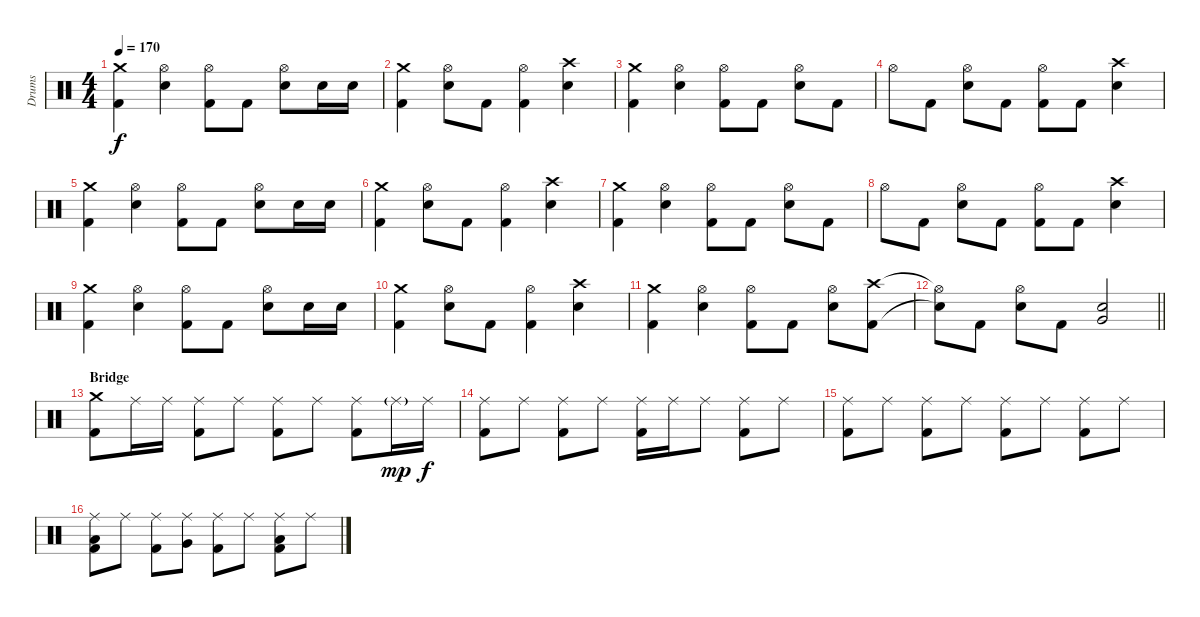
\track ("Drums" "Drums") {instrument percussion}
\staff {score}
\articulation defaults
\ts (4 4)
\tempo 170
\clef neutral
\ks c
("Crash medium (hit)" "Kick (hit) 2").4{dy f} ("Hi-Hat (open)" "Electric Snare (hit)").4 ("Hi-Hat (open)" "Kick (hit) 2").8 "Kick (hit) 2".8 ("Hi-Hat (open)" "Electric Snare (hit)").8 "Electric Snare (hit)".16 "Electric Snare (hit)".16 |
("Crash medium (hit)" "Kick (hit) 2").4 ("Hi-Hat (open)" "Electric Snare (hit)").8 "Kick (hit) 2".8 ("Hi-Hat (open)" "Kick (hit) 2").4 ("Crash high (hit)" "Electric Snare (hit)").4 |
("Crash medium (hit)" "Kick (hit) 2").4 ("Hi-Hat (open)" "Electric Snare (hit)").4 ("Hi-Hat (open)" "Kick (hit) 2").8 "Kick (hit) 2".8 ("Hi-Hat (open)" "Electric Snare (hit)").8 "Kick (hit) 2".8 |
"Hi-Hat (open)".8 "Kick (hit) 2".8 ("Hi-Hat (open)" "Electric Snare (hit)").8 "Kick (hit) 2".8 ("Hi-Hat (open)" "Kick (hit) 2").8 "Kick (hit) 2".8 ("Crash high (hit)" "Electric Snare (hit)").4 |
("Crash medium (hit)" "Kick (hit) 2").4 ("Hi-Hat (open)" "Electric Snare (hit)").4 ("Hi-Hat (open)" "Kick (hit) 2").8 "Kick (hit) 2".8 ("Hi-Hat (open)" "Electric Snare (hit)").8 "Electric Snare (hit)".16 "Electric Snare (hit)".16 |
("Crash medium (hit)" "Kick (hit) 2").4 ("Hi-Hat (open)" "Electric Snare (hit)").8 "Kick (hit) 2".8 ("Hi-Hat (open)" "Kick (hit) 2").4 ("Crash high (hit)" "Electric Snare (hit)").4 |
("Crash medium (hit)" "Kick (hit) 2").4 ("Hi-Hat (open)" "Electric Snare (hit)").4 ("Hi-Hat (open)" "Kick (hit) 2").8 "Kick (hit) 2".8 ("Hi-Hat (open)" "Electric Snare (hit)").8 "Kick (hit) 2".8 |
"Hi-Hat (open)".8 "Kick (hit) 2".8 ("Hi-Hat (open)" "Electric Snare (hit)").8 "Kick (hit) 2".8 ("Hi-Hat (open)" "Kick (hit) 2").8 "Kick (hit) 2".8 ("Crash high (hit)" "Electric Snare (hit)").4 |
("Crash medium (hit)" "Kick (hit) 2").4 ("Hi-Hat (open)" "Electric Snare (hit)").4 ("Hi-Hat (open)" "Kick (hit) 2").8 "Kick (hit) 2".8 ("Hi-Hat (open)" "Electric Snare (hit)").8 "Electric Snare (hit)".16 "Electric Snare (hit)".16 |
("Crash medium (hit)" "Kick (hit) 2").4 ("Hi-Hat (open)" "Electric Snare (hit)").8 "Kick (hit) 2".8 ("Hi-Hat (open)" "Kick (hit) 2").4 ("Crash high (hit)" "Electric Snare (hit)").4 |
("Crash medium (hit)" "Kick (hit) 2").4 ("Hi-Hat (open)" "Electric Snare (hit)").4 ("Hi-Hat (open)" "Kick (hit) 2").8 "Kick (hit) 2".8 ("Hi-Hat (open)" "Electric Snare (hit)").8 ("Crash high (hit)" "Kick (hit) 2").8 |
\barLineRight lightlight
("Hi-Hat (open)"{t} "Snare (hit)"{t}).8 "Kick (hit) 2".8 ("Hi-Hat (open)" "Electric Snare (hit)").8 "Kick (hit) 2".8 ("Very Low Tom (hit)" "Electric Snare (hit)").2 |
\section ("" "Bridge")
("Crash medium (hit)" "Kick (hit) 2").8 "Ride (middle)".16 "Ride (middle)".16 ("Ride (middle)" "Kick (hit) 2").8 "Ride (middle)".8 ("Ride (middle)" "Kick (hit) 2").8 "Ride (middle)".8 ("Ride (middle)" "Kick (hit) 2").8 "Ride (middle)"{g}.16{dy mp} "Ride (middle)".16{dy f} |
("Ride (middle)" "Kick (hit) 2").8 "Ride (middle)".8 ("Ride (middle)" "Kick (hit) 2").8 "Ride (middle)".8 ("Ride (middle)" "Kick (hit) 2").16 "Ride (middle)".16 "Ride (middle)".8 ("Ride (middle)" "Kick (hit) 2").8 "Ride (middle)".8 |
("Ride (middle)" "Kick (hit) 2").8 "Ride (middle)".8 ("Ride (middle)" "Kick (hit) 2").8 "Ride (middle)".8 ("Ride (middle)" "Kick (hit) 2").8 "Ride (middle)".8 ("Ride (middle)" "Kick (hit) 2").8 "Ride (middle)".8 |
("Ride (middle)" "Low Tom (hit)" "Kick (hit) 2").8 "Ride (middle)".8 ("Ride (middle)" "Kick (hit) 2").8 ("Ride (middle)" "Very Low Tom (hit)").8 ("Ride (middle)" "Kick (hit) 2").8 "Ride (middle)".8 ("Ride (middle)" "Low Floor Tom (hit)" "Kick (hit) 2").8 "Ride (middle)".8
